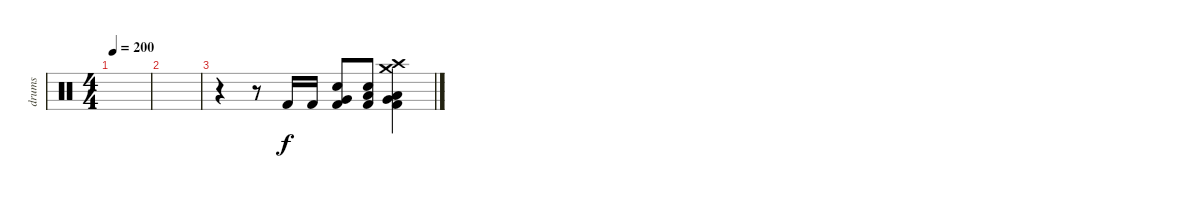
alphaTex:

\track ("drums" "drums") {instrument percussion}
\staff {score}
\articulation defaults
\ts (4 4)
\tempo 200
\clef neutral
\ks c
|
|
r.4 r.8 "Kick (hit) 2".16 "Kick (hit) 2".16 ("Electric Snare (hit)" "Very Low Tom (hit)" "Kick (hit) 2").8 ("Electric Snare (hit)" "Low Floor Tom (hit)" "Kick (hit) 2").8 ("Crash high (hit)" "Crash medium (hit)" "Very Low Tom (hit)" "Low Floor Tom (hit)" "Kick (hit) 2").4
